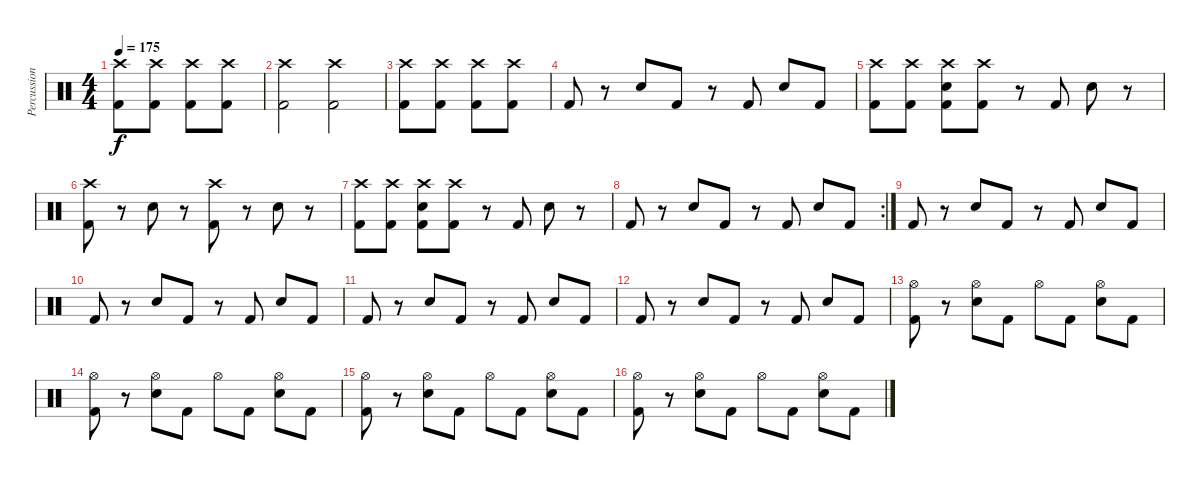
\track ("Percussion" "Percussion") {instrument percussion}
\staff {score}
\articulation defaults
\ts (4 4)
\tempo 175
\clef neutral
\ks c
("Crash high (hit)" "Kick (hit) 2").8{dy f} ("Crash high (hit)" "Kick (hit) 2").8 ("Crash high (hit)" "Kick (hit) 2").8 ("Crash high (hit)" "Kick (hit) 2").8 |
("Crash high (hit)" "Kick (hit) 2").2 ("Crash high (hit)" "Kick (hit) 2").2 |
("Kick (hit) 2" "Crash high (hit)").8 ("Kick (hit) 2" "Crash high (hit)").8 ("Kick (hit) 2" "Crash high (hit)").8 ("Kick (hit) 2" "Crash high (hit)").8 |
"Kick (hit) 2".8 r.8 "Snare (hit) 2".8 "Kick (hit) 2".8 r.8 "Kick (hit) 2".8 "Snare (hit) 2".8 "Kick (hit) 2".8 |
("Crash high (hit)" "Kick (hit) 2").8 ("Crash high (hit)" "Kick (hit) 2").8 ("Snare (hit) 2" "Crash high (hit)" "Kick (hit) 2").8 ("Crash high (hit)" "Kick (hit) 2").8 r.8 "Kick (hit) 2".8 "Snare (hit) 2".8 r.8 |
("Crash high (hit)" "Kick (hit) 2").8 r.8 "Snare (hit) 2".8 r.8 ("Crash high (hit)" "Kick (hit) 2").8 r.8 "Snare (hit) 2".8 r.8 |
("Crash high (hit)" "Kick (hit) 2").8 ("Crash high (hit)" "Kick (hit) 2").8 ("Snare (hit) 2" "Crash high (hit)" "Kick (hit) 2").8 ("Crash high (hit)" "Kick (hit) 2").8 r.8 "Kick (hit) 2".8 "Snare (hit) 2".8 r.8 |
\rc 2 "Kick (hit) 2".8
r.8 "Snare (hit) 2".8 "Kick (hit) 2".8 r.8 "Kick (hit) 2".8 "Snare (hit) 2".8 "Kick (hit) 2".8 |
"Kick (hit) 2".8 r.8 "Snare (hit) 2".8 "Kick (hit) 2".8 r.8 "Kick (hit) 2".8 "Snare (hit) 2".8 "Kick (hit) 2".8 |
"Kick (hit) 2".8 r.8 "Snare (hit) 2".8 "Kick (hit) 2".8 r.8 "Kick (hit) 2".8 "Snare (hit) 2".8 "Kick (hit) 2".8 |
"Kick (hit) 2".8 r.8 "Snare (hit) 2".8 "Kick (hit) 2".8 r.8 "Kick (hit) 2".8 "Snare (hit) 2".8 "Kick (hit) 2".8 |
"Kick (hit) 2".8 r.8 "Snare (hit) 2".8 "Kick (hit) 2".8 r.8 "Kick (hit) 2".8 "Snare (hit) 2".8 "Kick (hit) 2".8 |
("Kick (hit) 2" "Hi-Hat (open)").8 r.8 ("Snare (hit) 2" "Hi-Hat (open)").8 "Kick (hit) 2".8 "Hi-Hat (open)".8 "Kick (hit) 2".8 ("Snare (hit) 2" "Hi-Hat (open)").8 "Kick (hit) 2".8 |
("Kick (hit) 2" "Hi-Hat (open)").8 r.8 ("Snare (hit) 2" "Hi-Hat (open)").8 "Kick (hit) 2".8 "Hi-Hat (open)".8 "Kick (hit) 2".8 ("Snare (hit) 2" "Hi-Hat (open)").8 "Kick (hit) 2".8 |
("Kick (hit) 2" "Hi-Hat (open)").8 r.8 ("Snare (hit) 2" "Hi-Hat (open)").8 "Kick (hit) 2".8 "Hi-Hat (open)".8 "Kick (hit) 2".8 ("Snare (hit) 2" "Hi-Hat (open)").8 "Kick (hit) 2".8 |
("Kick (hit) 2" "Hi-Hat (open)").8 r.8 ("Snare (hit) 2" "Hi-Hat (open)").8 "Kick (hit) 2".8 "Hi-Hat (open)".8 "Kick (hit) 2".8 ("Snare (hit) 2" "Hi-Hat (open)").8 "Kick (hit) 2".8
